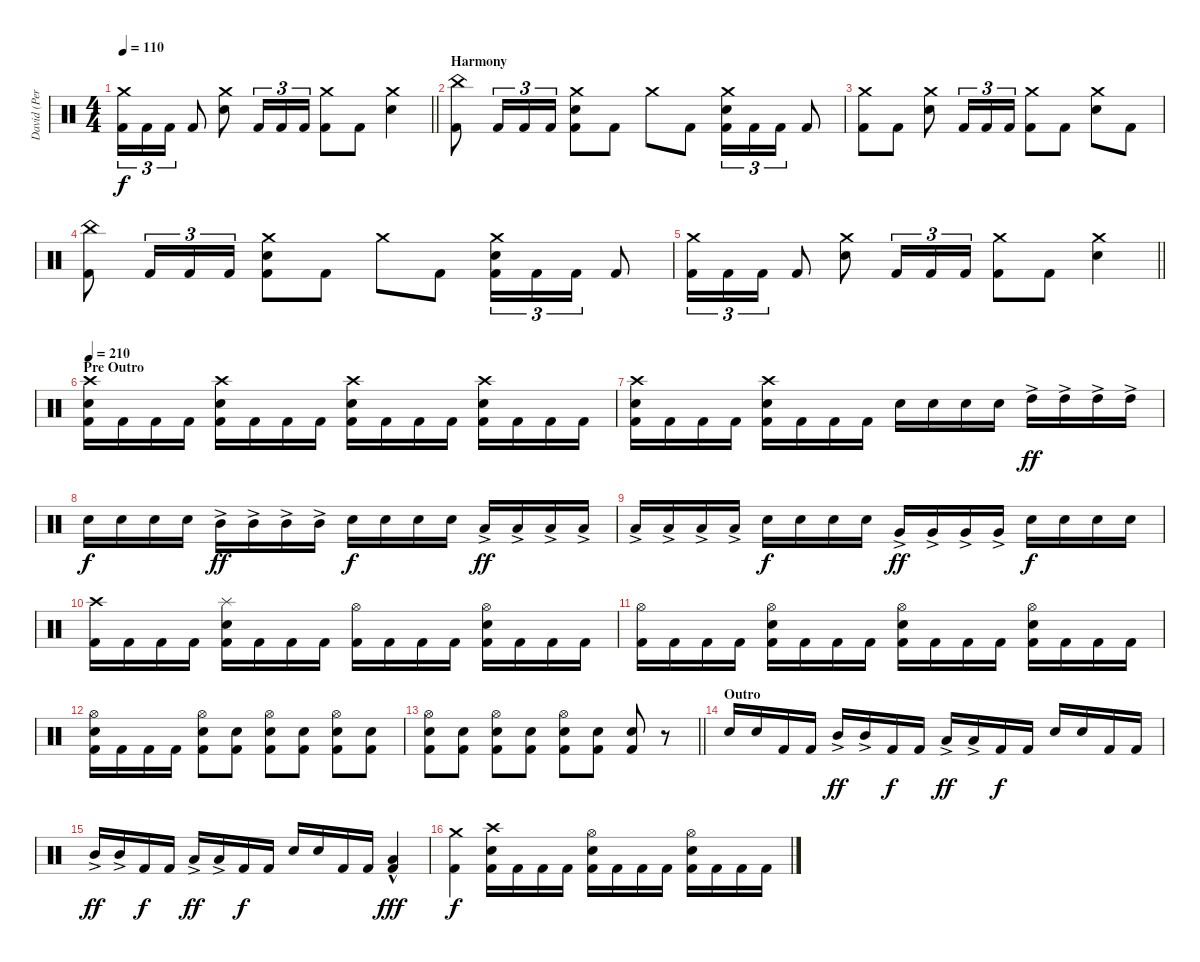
\track ("David (Percussion)" "David (Per") {instrument percussion}
\staff {score}
\articulation defaults
\ts (4 4)
\tempo 110
\clef neutral
\barLineRight lightlight
\ks c
("Crash medium (hit)" "Kick (hit) 2").16{tu (3 2) dy f} "Kick (hit) 2".16{tu (3 2)} "Kick (hit) 2".16{tu (3 2)} "Kick (hit) 2".8 ("Crash medium (hit)" "Electric Snare (hit)").8 "Kick (hit) 2".16{tu (3 2)} "Kick (hit) 2".16{tu (3 2)} "Kick (hit) 2".16{tu (3 2)} ("Crash medium (hit)" "Kick (hit) 2").8 "Kick (hit) 2".8 ("Crash medium (hit)" "Electric Snare (hit)").4 |
\section ("" "Harmony")
("China (hit)" "Kick (hit) 2").8 "Kick (hit) 2".16{tu (3 2)} "Kick (hit) 2".16{tu (3 2)} "Kick (hit) 2".16{tu (3 2)} ("Crash medium (hit)" "Electric Snare (hit)" "Kick (hit) 2").8 "Kick (hit) 2".8 "Crash medium (hit)".8 "Kick (hit) 2".8 ("Crash medium (hit)" "Electric Snare (hit)" "Kick (hit) 2").16{tu (3 2)} "Kick (hit) 2".16{tu (3 2)} "Kick (hit) 2".16{tu (3 2)} "Kick (hit) 2".8 |
("Crash medium (hit)" "Kick (hit) 2").8 "Kick (hit) 2".8 ("Crash medium (hit)" "Electric Snare (hit)").8 "Kick (hit) 2".16{tu (3 2)} "Kick (hit) 2".16{tu (3 2)} "Kick (hit) 2".16{tu (3 2)} ("Crash medium (hit)" "Kick (hit) 2").8 "Kick (hit) 2".8 ("Crash medium (hit)" "Electric Snare (hit)").8 "Kick (hit) 2".8 |
("China (hit)" "Kick (hit) 2").8 "Kick (hit) 2".16{tu (3 2)} "Kick (hit) 2".16{tu (3 2)} "Kick (hit) 2".16{tu (3 2)} ("Crash medium (hit)" "Electric Snare (hit)" "Kick (hit) 2").8 "Kick (hit) 2".8 "Crash medium (hit)".8 "Kick (hit) 2".8 ("Crash medium (hit)" "Electric Snare (hit)" "Kick (hit) 2").16{tu (3 2)} "Kick (hit) 2".16{tu (3 2)} "Kick (hit) 2".16{tu (3 2)} "Kick (hit) 2".8 |
\barLineRight lightlight
("Crash medium (hit)" "Kick (hit) 2").16{tu (3 2)} "Kick (hit) 2".16{tu (3 2)} "Kick (hit) 2".16{tu (3 2)} "Kick (hit) 2".8 ("Crash medium (hit)" "Electric Snare (hit)").8 "Kick (hit) 2".16{tu (3 2)} "Kick (hit) 2".16{tu (3 2)} "Kick (hit) 2".16{tu (3 2)} ("Crash medium (hit)" "Kick (hit) 2").8 "Kick (hit) 2".8 ("Crash medium (hit)" "Electric Snare (hit)").4 |
\section ("" "Pre Outro")
\tempo 210
("Crash high (hit)" "Electric Snare (hit)" "Kick (hit) 2").16 "Kick (hit) 2".16 "Kick (hit) 2".16 "Kick (hit) 2".16 ("Crash high (hit)" "Electric Snare (hit)" "Kick (hit) 2").16 "Kick (hit) 2".16 "Kick (hit) 2".16 "Kick (hit) 2".16 ("Crash high (hit)" "Electric Snare (hit)" "Kick (hit) 2").16 "Kick (hit) 2".16 "Kick (hit) 2".16 "Kick (hit) 2".16 ("Crash high (hit)" "Electric Snare (hit)" "Kick (hit) 2").16 "Kick (hit) 2".16 "Kick (hit) 2".16 "Kick (hit) 2".16 |
("Crash high (hit)" "Electric Snare (hit)" "Kick (hit) 2").16 "Kick (hit) 2".16 "Kick (hit) 2".16 "Kick (hit) 2".16 ("Crash high (hit)" "Electric Snare (hit)" "Kick (hit) 2").16 "Kick (hit) 2".16 "Kick (hit) 2".16 "Kick (hit) 2".16 "Electric Snare (hit)".16 "Electric Snare (hit)".16 "Electric Snare (hit)".16 "Electric Snare (hit)".16 "High Tom (hit)"{ac}.16{dy ff} "High Tom (hit)"{ac}.16 "High Tom (hit)"{ac}.16 "High Tom (hit)"{ac}.16 |
"Electric Snare (hit)".16{dy f} "Electric Snare (hit)".16 "Electric Snare (hit)".16 "Electric Snare (hit)".16 "Mid Tom (hit)"{ac}.16{dy ff} "Mid Tom (hit)"{ac}.16 "Mid Tom (hit)"{ac}.16 "Mid Tom (hit)"{ac}.16 "Electric Snare (hit)".16{dy f} "Electric Snare (hit)".16 "Electric Snare (hit)".16 "Electric Snare (hit)".16 "Low Tom (hit)"{ac}.16{dy ff} "Low Tom (hit)"{ac}.16 "Low Tom (hit)"{ac}.16 "Low Tom (hit)"{ac}.16 |
"Low Floor Tom (hit)"{ac}.16 "Low Floor Tom (hit)"{ac}.16 "Low Floor Tom (hit)"{ac}.16 "Low Floor Tom (hit)"{ac}.16 "Electric Snare (hit)".16{dy f} "Electric Snare (hit)".16 "Electric Snare (hit)".16 "Electric Snare (hit)".16 "Very Low Tom (hit)"{ac}.16{dy ff} "Very Low Tom (hit)"{ac}.16 "Very Low Tom (hit)"{ac}.16 "Very Low Tom (hit)"{ac}.16 "Electric Snare (hit)".16{dy f} "Electric Snare (hit)".16 "Electric Snare (hit)".16 "Electric Snare (hit)".16 |
("Crash high (hit)" "Kick (hit) 2").16 "Kick (hit) 2".16 "Kick (hit) 2".16 "Kick (hit) 2".16 ("Splash (hit)" "Electric Snare (hit)" "Kick (hit) 2").16 "Kick (hit) 2".16 "Kick (hit) 2".16 "Kick (hit) 2".16 ("Hi-Hat (open)" "Kick (hit) 2").16 "Kick (hit) 2".16 "Kick (hit) 2".16 "Kick (hit) 2".16 ("Hi-Hat (open)" "Electric Snare (hit)" "Kick (hit) 2").16 "Kick (hit) 2".16 "Kick (hit) 2".16 "Kick (hit) 2".16 |
("Hi-Hat (open)" "Kick (hit) 2").16 "Kick (hit) 2".16 "Kick (hit) 2".16 "Kick (hit) 2".16 ("Hi-Hat (open)" "Electric Snare (hit)" "Kick (hit) 2").16 "Kick (hit) 2".16 "Kick (hit) 2".16 "Kick (hit) 2".16 ("Hi-Hat (open)" "Electric Snare (hit)" "Kick (hit) 2").16 "Kick (hit) 2".16 "Kick (hit) 2".16 "Kick (hit) 2".16 ("Hi-Hat (open)" "Electric Snare (hit)" "Kick (hit) 2").16 "Kick (hit) 2".16 "Kick (hit) 2".16 "Kick (hit) 2".16 |
("Hi-Hat (open)" "Electric Snare (hit)" "Kick (hit) 2").16 "Kick (hit) 2".16 "Kick (hit) 2".16 "Kick (hit) 2".16 ("Hi-Hat (open)" "Electric Snare (hit)" "Kick (hit) 2").8 ("Electric Snare (hit)" "Kick (hit) 2").8 ("Hi-Hat (open)" "Electric Snare (hit)" "Kick (hit) 2").8 ("Electric Snare (hit)" "Kick (hit) 2").8 ("Hi-Hat (open)" "Electric Snare (hit)" "Kick (hit) 2").8 ("Electric Snare (hit)" "Kick (hit) 2").8 |
\barLineRight lightlight
("Hi-Hat (open)" "Electric Snare (hit)" "Kick (hit) 2").8 ("Electric Snare (hit)" "Kick (hit) 2").8 ("Hi-Hat (open)" "Electric Snare (hit)" "Kick (hit) 2").8 ("Electric Snare (hit)" "Kick (hit) 2").8 ("Hi-Hat (open)" "Electric Snare (hit)" "Kick (hit) 2").8 ("Electric Snare (hit)" "Kick (hit) 2").8 ("Electric Snare (hit)" "Kick (hit) 2").8 r.8 |
\section ("" "Outro")
"Electric Snare (hit)".16 "Electric Snare (hit)".16 "Kick (hit) 2".16 "Kick (hit) 2".16 "Mid Tom (hit)"{ac}.16{dy ff} "Mid Tom (hit)"{ac}.16 "Kick (hit) 2".16{dy f} "Kick (hit) 2".16 "Low Tom (hit)"{ac}.16{dy ff} "Low Tom (hit)"{ac}.16 "Kick (hit) 2".16{dy f} "Kick (hit) 2".16 "Electric Snare (hit)".16 "Electric Snare (hit)".16 "Kick (hit) 2".16 "Kick (hit) 2".16 |
"Mid Tom (hit)"{ac}.16{dy ff} "Mid Tom (hit)"{ac}.16 "Kick (hit) 2".16{dy f} "Kick (hit) 2".16 "Low Tom (hit)"{ac}.16{dy ff} "Low Tom (hit)"{ac}.16 "Kick (hit) 2".16{dy f} "Kick (hit) 2".16 "Electric Snare (hit)".16 "Electric Snare (hit)".16 "Kick (hit) 2".16 "Kick (hit) 2".16 ("Low Floor Tom (hit)"{hac} "Kick (hit) 2").4{dy fff} |
("Crash medium (hit)" "Kick (hit) 2").4{dy f} ("Crash high (hit)" "Electric Snare (hit)" "Kick (hit) 2").16 "Kick (hit) 2".16 "Kick (hit) 2".16 "Kick (hit) 2".16 ("Hi-Hat (open)" "Electric Snare (hit)" "Kick (hit) 2").16 "Kick (hit) 2".16 "Kick (hit) 2".16 "Kick (hit) 2".16 ("Hi-Hat (open)" "Electric Snare (hit)" "Kick (hit) 2").16 "Kick (hit) 2".16 "Kick (hit) 2".16 "Kick (hit) 2".16
